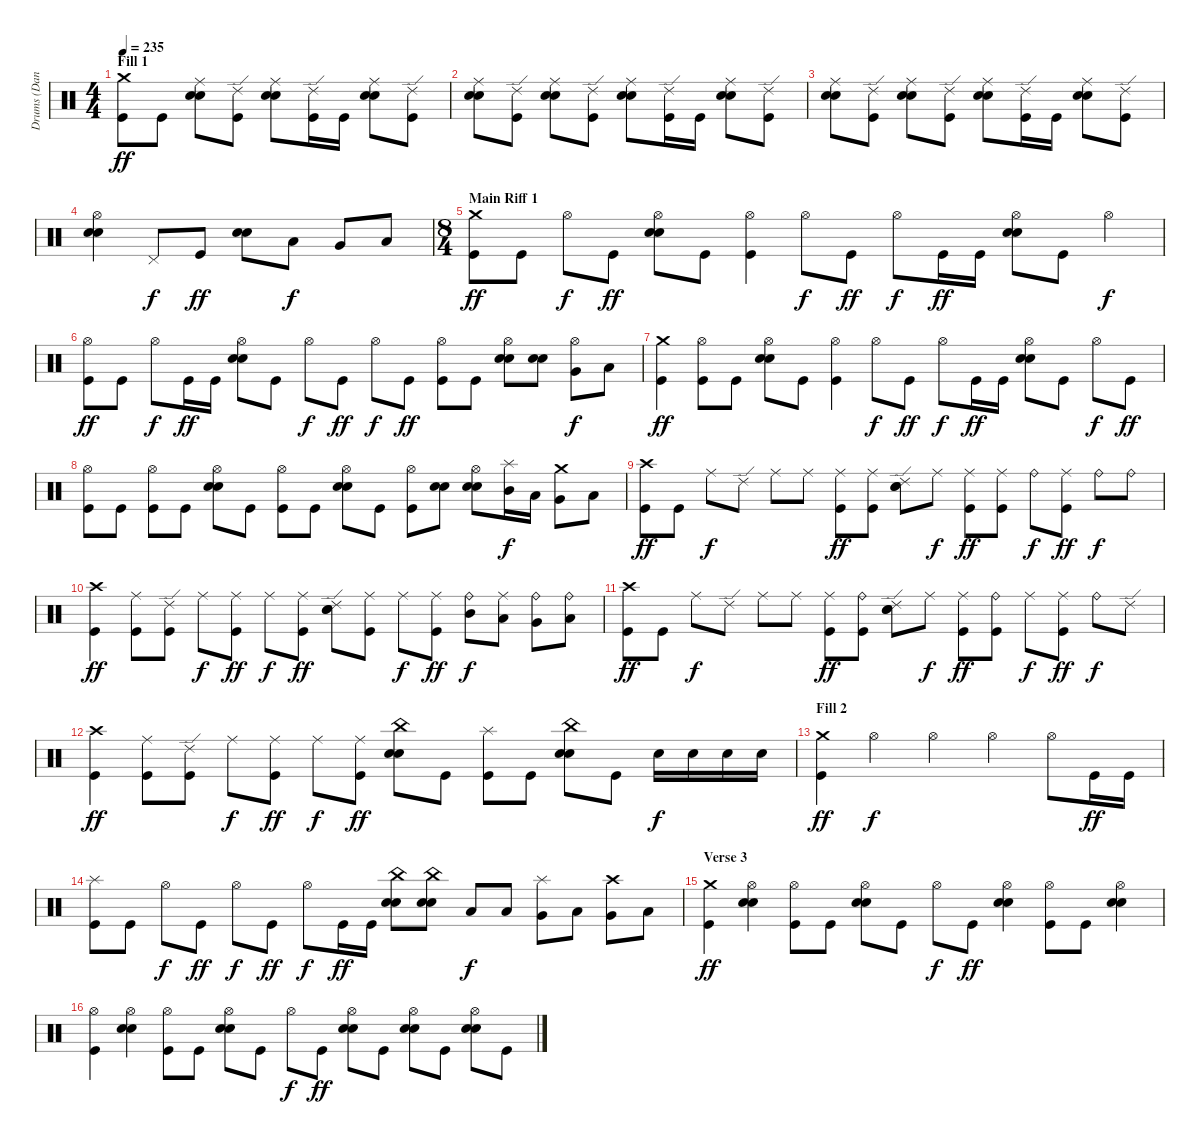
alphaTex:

\track ("Drums (Dan)" "Drums (Dan") {instrument percussion}
\staff {score}
\articulation defaults
\ts (4 4)
\section ("" "Fill 1")
\tempo 235
\clef neutral
\ks c
("Kick (hit)" "Crash medium (hit)").8{dy ff} "Kick (hit)".8 ("Electric Snare (hit)" "Electric Snare (hit)" "Ride (middle)").8 ("Kick (hit)" "Ride (edge) 2").8 ("Electric Snare (hit)" "Electric Snare (hit)" "Ride (middle)").8 ("Kick (hit)" "Ride (edge) 2").16 "Kick (hit)".16 ("Electric Snare (hit)" "Electric Snare (hit)" "Ride (middle)").8 ("Kick (hit)" "Ride (edge) 2").8 |
("Electric Snare (hit)" "Electric Snare (hit)" "Ride (middle)").8 ("Kick (hit)" "Ride (edge) 2").8 ("Electric Snare (hit)" "Electric Snare (hit)" "Ride (middle)").8 ("Kick (hit)" "Ride (edge) 2").8 ("Electric Snare (hit)" "Electric Snare (hit)" "Ride (middle)").8 ("Kick (hit)" "Ride (edge) 2").16 "Kick (hit)".16 ("Electric Snare (hit)" "Electric Snare (hit)" "Ride (middle)").8 ("Kick (hit)" "Ride (edge) 2").8 |
("Electric Snare (hit)" "Electric Snare (hit)" "Ride (middle)").8 ("Kick (hit)" "Ride (edge) 2").8 ("Electric Snare (hit)" "Electric Snare (hit)" "Ride (middle)").8 ("Kick (hit)" "Ride (edge) 2").8 ("Electric Snare (hit)" "Electric Snare (hit)" "Ride (middle)").8 ("Kick (hit)" "Ride (edge) 2").16 "Kick (hit)".16 ("Electric Snare (hit)" "Electric Snare (hit)" "Ride (middle)").8 ("Kick (hit)" "Ride (edge) 2").8 |
("Electric Snare (hit)" "Electric Snare (hit)" "Hi-Hat (open)").4 "Pedal Hi-Hat (hit)".8{dy f} "Kick (hit)".8{dy ff} ("Electric Snare (hit)" "Electric Snare (hit)").8 "Low Tom (hit)".8{dy f} "Very Low Tom (hit)".8 "Low Floor Tom (hit)".8 |
\ts (8 4)
\section ("" "Main Riff 1")
("Kick (hit)" "Crash medium (hit)").8{dy ff} "Kick (hit)".8 "Hi-Hat (open)".8{dy f} "Kick (hit)".8{dy ff} ("Electric Snare (hit)" "Electric Snare (hit)" "Hi-Hat (open)").8 "Kick (hit)".8 ("Kick (hit)" "Hi-Hat (open)").4 "Hi-Hat (open)".8{dy f} "Kick (hit)".8{dy ff} "Hi-Hat (open)".8{dy f} "Kick (hit)".16{dy ff} "Kick (hit)".16 ("Electric Snare (hit)" "Electric Snare (hit)" "Hi-Hat (open)").8 "Kick (hit)".8 "Hi-Hat (open)".4{dy f} |
("Kick (hit)" "Hi-Hat (open)").8{dy ff} "Kick (hit)".8 "Hi-Hat (open)".8{dy f} "Kick (hit)".16{dy ff} "Kick (hit)".16 ("Electric Snare (hit)" "Electric Snare (hit)" "Hi-Hat (open)").8 "Kick (hit)".8 "Hi-Hat (open)".8{dy f} "Kick (hit)".8{dy ff} "Hi-Hat (open)".8{dy f} "Kick (hit)".8{dy ff} ("Kick (hit)" "Hi-Hat (open)").8 "Kick (hit)".8 ("Electric Snare (hit)" "Electric Snare (hit)" "Hi-Hat (open)").8 ("Electric Snare (hit)" "Electric Snare (hit)").8 ("Very Low Tom (hit)" "Hi-Hat (open)").8{dy f} "Low Floor Tom (hit)".8 |
("Kick (hit)" "Crash medium (hit)").4{dy ff} ("Kick (hit)" "Hi-Hat (open)").8 "Kick (hit)".8 ("Electric Snare (hit)" "Electric Snare (hit)" "Hi-Hat (open)").8 "Kick (hit)".8 ("Kick (hit)" "Hi-Hat (open)").4 "Hi-Hat (open)".8{dy f} "Kick (hit)".8{dy ff} "Hi-Hat (open)".8{dy f} "Kick (hit)".16{dy ff} "Kick (hit)".16 ("Electric Snare (hit)" "Electric Snare (hit)" "Hi-Hat (open)").8 "Kick (hit)".8 "Hi-Hat (open)".8{dy f} "Kick (hit)".8{dy ff} |
("Kick (hit)" "Hi-Hat (open)").8 "Kick (hit)".8 ("Kick (hit)" "Hi-Hat (open)").8 "Kick (hit)".8 ("Electric Snare (hit)" "Electric Snare (hit)" "Hi-Hat (open)").8 "Kick (hit)".8 ("Kick (hit)" "Hi-Hat (open)").8 "Kick (hit)".8 ("Electric Snare (hit)" "Electric Snare (hit)" "Hi-Hat (open)").8 "Kick (hit)".8 ("Kick (hit)" "Hi-Hat (open)").8 ("Electric Snare (hit)" "Electric Snare (hit)").8 ("Electric Snare (hit)" "Electric Snare (hit)" "Hi-Hat (open)").8 ("Mid Tom (hit)" "Splash (hit)").16{dy f} "Low Tom (hit)".16 ("Very Low Tom (hit)" "Crash medium (hit)").8 "Low Floor Tom (hit)".8 |
("Kick (hit)" "Crash high (hit)").8{dy ff} "Kick (hit)".8 "Ride (middle)".8{dy f} "Ride (edge) 2".8 "Ride (middle)".8 "Ride (middle)".8 ("Kick (hit)" "Ride (middle)").8{dy ff} ("Kick (hit)" "Ride (middle)").8 ("Electric Snare (hit)" "Electric Snare (hit)" "Ride (edge) 2").8 "Ride (middle)".8{dy f} ("Kick (hit)" "Ride (middle)").8{dy ff} ("Kick (hit)" "Ride (middle)").8 "Ride (bell)".8{dy f} ("Kick (hit)" "Ride (middle)").8{dy ff} "Ride (bell)".8{dy f} "Ride (bell)".8 |
("Kick (hit)" "Crash high (hit)").4{dy ff} ("Kick (hit)" "Ride (middle)").8 ("Kick (hit)" "Ride (edge) 2").8 "Ride (middle)".8{dy f} ("Kick (hit)" "Ride (middle)").8{dy ff} "Ride (middle)".8{dy f} ("Kick (hit)" "Ride (middle)").8{dy ff} ("Electric Snare (hit)" "Electric Snare (hit)" "Ride (edge) 2").8 ("Kick (hit)" "Ride (middle)").8 "Ride (middle)".8{dy f} ("Kick (hit)" "Ride (middle)").8{dy ff} ("Mid Tom (hit)" "Ride (bell)").8{dy f} ("Low Tom (hit)" "Ride (middle)").8 ("Very Low Tom (hit)" "Ride (bell)").8 ("Low Floor Tom (hit)" "Ride (bell)").8 |
("Kick (hit)" "Crash high (hit)").8{dy ff} "Kick (hit)".8 "Ride (middle)".8{dy f} "Ride (edge) 2".8 "Ride (middle)".8 "Ride (middle)".8 ("Kick (hit)" "Ride (middle)").8{dy ff} ("Kick (hit)" "Ride (bell)").8 ("Electric Snare (hit)" "Electric Snare (hit)" "Ride (edge) 2").8 "Ride (middle)".8{dy f} ("Kick (hit)" "Ride (middle)").8{dy ff} ("Kick (hit)" "Ride (bell)").8 "Ride (middle)".8{dy f} ("Kick (hit)" "Ride (middle)").8{dy ff} "Ride (bell)".8{dy f} "Ride (edge) 2".8 |
("Kick (hit)" "Crash high (hit)").4{dy ff} ("Kick (hit)" "Ride (middle)").8 ("Kick (hit)" "Ride (edge) 2").8 "Ride (middle)".8{dy f} ("Kick (hit)" "Ride (middle)").8{dy ff} "Ride (middle)".8{dy f} ("Kick (hit)" "Ride (middle)").8{dy ff} ("Electric Snare (hit)" "Electric Snare (hit)" "China (hit)").8 "Kick (hit)".8 ("Kick (hit)" "Splash (hit)").8 "Kick (hit)".8 ("Electric Snare (hit)" "Electric Snare (hit)" "China (hit)").8 "Kick (hit)".8 "Electric Snare (hit)".16{dy f} "Electric Snare (hit)".16 "Electric Snare (hit)".16 "Electric Snare (hit)".16 |
\section ("" "Fill 2")
("Kick (hit)" "Crash medium (hit)").4{dy ff} "Hi-Hat (open)".2{dy f} "Hi-Hat (open)".2 "Hi-Hat (open)".2 "Hi-Hat (open)".8 "Kick (hit)".16{dy ff} "Kick (hit)".16 |
("Kick (hit)" "Splash (hit)").8 "Kick (hit)".8 "Hi-Hat (open)".8{dy f} "Kick (hit)".8{dy ff} "Hi-Hat (open)".8{dy f} "Kick (hit)".8{dy ff} "Hi-Hat (open)".8{dy f} "Kick (hit)".16{dy ff} "Kick (hit)".16 ("Electric Snare (hit)" "Electric Snare (hit)" "China (hit)").8 ("Electric Snare (hit)" "Electric Snare (hit)" "China (hit)").8 "Low Tom (hit)".8{dy f} "Low Tom (hit)".8 ("Very Low Tom (hit)" "Splash (hit)").8 "Low Tom (hit)".8 ("Very Low Tom (hit)" "Crash high (hit)").8 "Low Floor Tom (hit)".8 |
\section ("" "Verse 3")
("Kick (hit)" "Crash medium (hit)").4{dy ff} ("Electric Snare (hit)" "Electric Snare (hit)" "Hi-Hat (open)").4 ("Kick (hit)" "Hi-Hat (open)").8 "Kick (hit)".8 ("Electric Snare (hit)" "Electric Snare (hit)" "Hi-Hat (open)").8 "Kick (hit)".8 "Hi-Hat (open)".8{dy f} "Kick (hit)".8{dy ff} ("Electric Snare (hit)" "Electric Snare (hit)" "Hi-Hat (open)").4 ("Kick (hit)" "Hi-Hat (open)").8 "Kick (hit)".8 ("Electric Snare (hit)" "Electric Snare (hit)" "Hi-Hat (open)").4 |
("Kick (hit)" "Hi-Hat (open)").4 ("Electric Snare (hit)" "Electric Snare (hit)" "Hi-Hat (open)").4 ("Kick (hit)" "Hi-Hat (open)").8 "Kick (hit)".8 ("Electric Snare (hit)" "Electric Snare (hit)" "Hi-Hat (open)").8 "Kick (hit)".8 "Hi-Hat (open)".8{dy f} "Kick (hit)".8{dy ff} ("Electric Snare (hit)" "Electric Snare (hit)" "Hi-Hat (open)").8 "Kick (hit)".8 ("Electric Snare (hit)" "Electric Snare (hit)" "Hi-Hat (open)").8 "Kick (hit)".8 ("Electric Snare (hit)" "Electric Snare (hit)" "Hi-Hat (open)").8 "Kick (hit)".8
